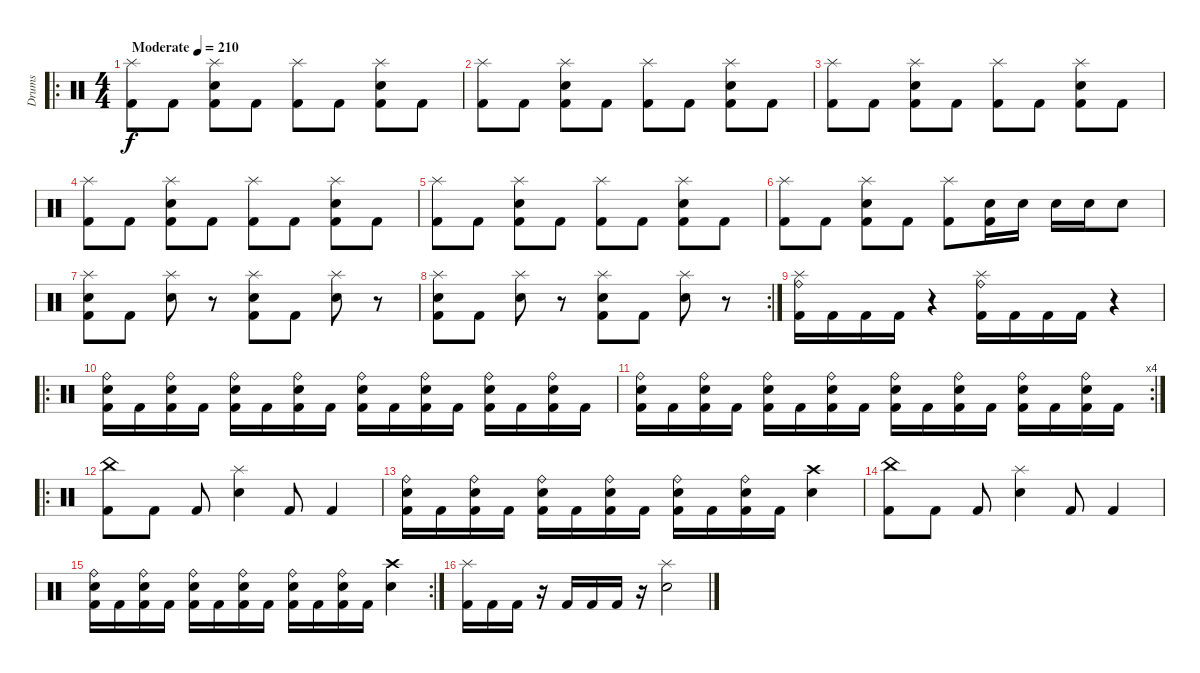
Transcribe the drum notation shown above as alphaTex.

\track ("Drums" "Drums") {instrument percussion}
\staff {score}
\articulation defaults
\ro
\ts (4 4)
\tempo (210 "Moderate")
\clef neutral
\ks c
("Splash (hit)" "Kick (hit) 2").8{dy f} "Kick (hit) 2".8 ("Splash (hit)" "Snare (hit) 2" "Kick (hit) 2").8 "Kick (hit) 2".8 ("Splash (hit)" "Kick (hit) 2").8 "Kick (hit) 2".8 ("Splash (hit)" "Snare (hit) 2" "Kick (hit) 2").8 "Kick (hit) 2".8 |
("Splash (hit)" "Kick (hit) 2").8 "Kick (hit) 2".8 ("Splash (hit)" "Snare (hit) 2" "Kick (hit) 2").8 "Kick (hit) 2".8 ("Splash (hit)" "Kick (hit) 2").8 "Kick (hit) 2".8 ("Splash (hit)" "Snare (hit) 2" "Kick (hit) 2").8 "Kick (hit) 2".8 |
("Splash (hit)" "Kick (hit) 2").8 "Kick (hit) 2".8 ("Splash (hit)" "Snare (hit) 2" "Kick (hit) 2").8 "Kick (hit) 2".8 ("Splash (hit)" "Kick (hit) 2").8 "Kick (hit) 2".8 ("Splash (hit)" "Snare (hit) 2" "Kick (hit) 2").8 "Kick (hit) 2".8 |
("Splash (hit)" "Kick (hit) 2").8 "Kick (hit) 2".8 ("Splash (hit)" "Snare (hit) 2" "Kick (hit) 2").8 "Kick (hit) 2".8 ("Splash (hit)" "Kick (hit) 2").8 "Kick (hit) 2".8 ("Splash (hit)" "Snare (hit) 2" "Kick (hit) 2").8 "Kick (hit) 2".8 |
("Splash (hit)" "Kick (hit) 2").8 "Kick (hit) 2".8 ("Splash (hit)" "Snare (hit) 2" "Kick (hit) 2").8 "Kick (hit) 2".8 ("Splash (hit)" "Kick (hit) 2").8 "Kick (hit) 2".8 ("Splash (hit)" "Snare (hit) 2" "Kick (hit) 2").8 "Kick (hit) 2".8 |
("Splash (hit)" "Kick (hit) 2").8 "Kick (hit) 2".8 ("Splash (hit)" "Snare (hit) 2" "Kick (hit) 2").8 "Kick (hit) 2".8 ("Splash (hit)" "Kick (hit) 2").8 ("Snare (hit) 2" "Kick (hit) 2").16 "Snare (hit) 2".16 "Snare (hit) 2".16 "Snare (hit) 2".16 "Snare (hit) 2".8 |
("Splash (hit)" "Snare (hit) 2" "Kick (hit) 2").8 "Kick (hit) 2".8 ("Splash (hit)" "Snare (hit) 2").8 r.8 ("Splash (hit)" "Snare (hit) 2" "Kick (hit) 2").8 "Kick (hit) 2".8 ("Splash (hit)" "Snare (hit) 2").8 r.8 |
\rc 2
("Splash (hit)" "Snare (hit) 2" "Kick (hit) 2").8 "Kick (hit) 2".8 ("Splash (hit)" "Snare (hit) 2").8 r.8 ("Splash (hit)" "Snare (hit) 2" "Kick (hit) 2").8 "Kick (hit) 2".8 ("Splash (hit)" "Snare (hit) 2").8 r.8 |
("Splash (hit)" "Ride (bell)" "Kick (hit) 2").16 "Kick (hit) 2".16 "Kick (hit) 2".16 "Kick (hit) 2".16 r.4 ("Splash (hit)" "Ride (bell)" "Kick (hit) 2").16 "Kick (hit) 2".16 "Kick (hit) 2".16 "Kick (hit) 2".16 r.4 |
\ro
("Ride (bell)" "Snare (hit) 2" "Kick (hit) 2").16 "Kick (hit) 2".16 ("Ride (bell)" "Snare (hit) 2" "Kick (hit) 2").16 "Kick (hit) 2".16 ("Ride (bell)" "Snare (hit) 2" "Kick (hit) 2").16 "Kick (hit) 2".16 ("Ride (bell)" "Snare (hit) 2" "Kick (hit) 2").16 "Kick (hit) 2".16 ("Ride (bell)" "Snare (hit) 2" "Kick (hit) 2").16 "Kick (hit) 2".16 ("Ride (bell)" "Snare (hit) 2" "Kick (hit) 2").16 "Kick (hit) 2".16 ("Ride (bell)" "Snare (hit) 2" "Kick (hit) 2").16 "Kick (hit) 2".16 ("Ride (bell)" "Snare (hit) 2" "Kick (hit) 2").16 "Kick (hit) 2".16 |
\rc 4
("Ride (bell)" "Snare (hit) 2" "Kick (hit) 2").16 "Kick (hit) 2".16 ("Ride (bell)" "Snare (hit) 2" "Kick (hit) 2").16 "Kick (hit) 2".16 ("Ride (bell)" "Snare (hit) 2" "Kick (hit) 2").16 "Kick (hit) 2".16 ("Ride (bell)" "Snare (hit) 2" "Kick (hit) 2").16 "Kick (hit) 2".16 ("Ride (bell)" "Snare (hit) 2" "Kick (hit) 2").16 "Kick (hit) 2".16 ("Ride (bell)" "Snare (hit) 2" "Kick (hit) 2").16 "Kick (hit) 2".16 ("Ride (bell)" "Snare (hit) 2" "Kick (hit) 2").16 "Kick (hit) 2".16 ("Ride (bell)" "Snare (hit) 2" "Kick (hit) 2").16 "Kick (hit) 2".16 |
\ro
("China (hit)" "Kick (hit) 2").8 "Kick (hit) 2".8 "Kick (hit) 2".8 ("Splash (hit)" "Snare (hit) 2").4 "Kick (hit) 2".8 "Kick (hit) 2".4 |
("Ride (bell)" "Snare (hit) 2" "Kick (hit) 2").16 "Kick (hit) 2".16 ("Ride (bell)" "Snare (hit) 2" "Kick (hit) 2").16 "Kick (hit) 2".16 ("Ride (bell)" "Snare (hit) 2" "Kick (hit) 2").16 "Kick (hit) 2".16 ("Ride (bell)" "Snare (hit) 2" "Kick (hit) 2").16 "Kick (hit) 2".16 ("Ride (bell)" "Snare (hit) 2" "Kick (hit) 2").16 "Kick (hit) 2".16 ("Ride (bell)" "Snare (hit) 2" "Kick (hit) 2").16 "Kick (hit) 2".16 ("Crash high (hit)" "Snare (hit) 2").4 |
("China (hit)" "Kick (hit) 2").8 "Kick (hit) 2".8 "Kick (hit) 2".8 ("Splash (hit)" "Snare (hit) 2").4 "Kick (hit) 2".8 "Kick (hit) 2".4 |
\rc 2
("Ride (bell)" "Snare (hit) 2" "Kick (hit) 2").16 "Kick (hit) 2".16 ("Ride (bell)" "Snare (hit) 2" "Kick (hit) 2").16 "Kick (hit) 2".16 ("Ride (bell)" "Snare (hit) 2" "Kick (hit) 2").16 "Kick (hit) 2".16 ("Ride (bell)" "Snare (hit) 2" "Kick (hit) 2").16 "Kick (hit) 2".16 ("Ride (bell)" "Snare (hit) 2" "Kick (hit) 2").16 "Kick (hit) 2".16 ("Ride (bell)" "Snare (hit) 2" "Kick (hit) 2").16 "Kick (hit) 2".16 ("Crash high (hit)" "Snare (hit) 2").4 |
("Splash (hit)" "Kick (hit) 2").16 "Kick (hit) 2".16 "Kick (hit) 2".16 r.16 "Kick (hit) 2".16 "Kick (hit) 2".16 "Kick (hit) 2".16 r.16 ("Splash (hit)" "Snare (hit) 2").2
